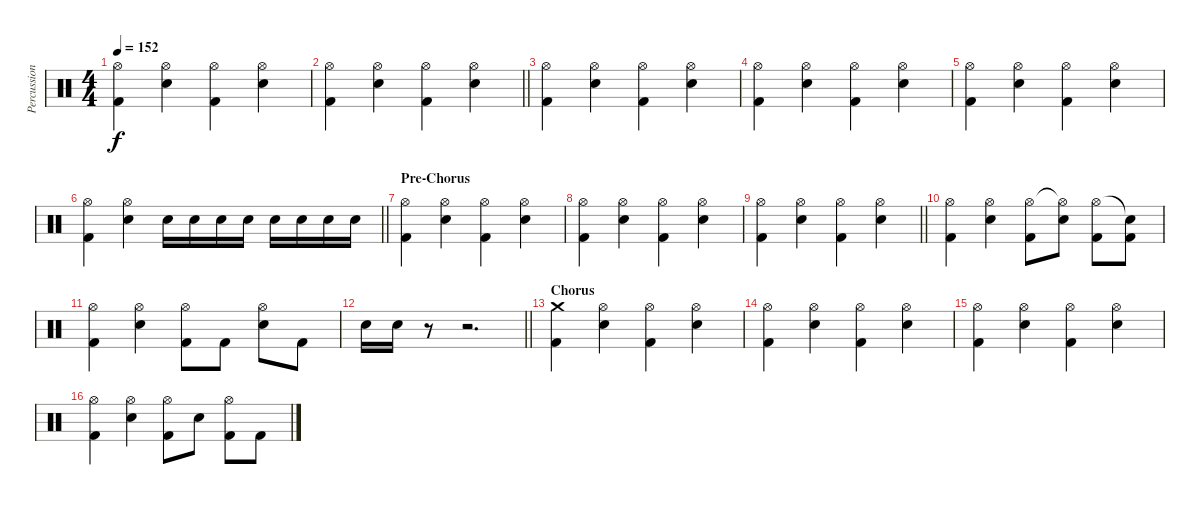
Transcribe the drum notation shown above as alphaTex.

\track ("Percussion" "Percussion") {instrument percussion}
\staff {score}
\articulation defaults
\ts (4 4)
\tempo 152
\clef neutral
\ks c
("Hi-Hat (open)" "Kick (hit) 2").4{dy f} ("Hi-Hat (open)" "Electric Snare (hit)").4 ("Hi-Hat (open)" "Kick (hit) 2").4 ("Hi-Hat (open)" "Electric Snare (hit)").4 |
\barLineRight lightlight
("Hi-Hat (open)" "Kick (hit) 2").4 ("Hi-Hat (open)" "Electric Snare (hit)").4 ("Hi-Hat (open)" "Kick (hit) 2").4 ("Hi-Hat (open)" "Electric Snare (hit)").4 |
("Hi-Hat (open)" "Kick (hit) 2").4 ("Hi-Hat (open)" "Electric Snare (hit)").4 ("Hi-Hat (open)" "Kick (hit) 2").4 ("Hi-Hat (open)" "Electric Snare (hit)").4 |
("Hi-Hat (open)" "Kick (hit) 2").4 ("Hi-Hat (open)" "Electric Snare (hit)").4 ("Hi-Hat (open)" "Kick (hit) 2").4 ("Hi-Hat (open)" "Electric Snare (hit)").4 |
("Hi-Hat (open)" "Kick (hit) 2").4 ("Hi-Hat (open)" "Electric Snare (hit)").4 ("Hi-Hat (open)" "Kick (hit) 2").4 ("Hi-Hat (open)" "Electric Snare (hit)").4 |
\barLineRight lightlight
("Hi-Hat (open)" "Kick (hit) 2").4 ("Hi-Hat (open)" "Electric Snare (hit)").4 "Electric Snare (hit)".16 "Electric Snare (hit)".16 "Electric Snare (hit)".16 "Electric Snare (hit)".16 "Electric Snare (hit)".16 "Electric Snare (hit)".16 "Electric Snare (hit)".16 "Electric Snare (hit)".16 |
\section ("" "Pre-Chorus")
("Hi-Hat (open)" "Kick (hit) 2").4 ("Hi-Hat (open)" "Electric Snare (hit)").4 ("Hi-Hat (open)" "Kick (hit) 2").4 ("Hi-Hat (open)" "Electric Snare (hit)").4 |
("Hi-Hat (open)" "Kick (hit) 2").4 ("Hi-Hat (open)" "Electric Snare (hit)").4 ("Hi-Hat (open)" "Kick (hit) 2").4 ("Hi-Hat (open)" "Electric Snare (hit)").4 |
\barLineRight lightlight
("Hi-Hat (open)" "Kick (hit) 2").4 ("Hi-Hat (open)" "Electric Snare (hit)").4 ("Hi-Hat (open)" "Kick (hit) 2").4 ("Hi-Hat (open)" "Electric Snare (hit)").4 |
("Hi-Hat (open)" "Kick (hit) 2").4 ("Hi-Hat (open)" "Electric Snare (hit)").4 ("Hi-Hat (open)" "Kick (hit) 2").8 ("Hi-Hat (open)"{t} "Electric Snare (hit)").8 ("Hi-Hat (open)" "Kick (hit) 2").8 ("Snare (hit)"{t} "Kick (hit) 2").8 |
("Hi-Hat (open)" "Kick (hit) 2").4 ("Hi-Hat (open)" "Electric Snare (hit)").4 ("Hi-Hat (open)" "Kick (hit) 2").8 "Kick (hit) 2".8 ("Hi-Hat (open)" "Electric Snare (hit)").8 "Kick (hit) 2".8 |
\barLineRight lightlight "Electric Snare (hit)".16 "Electric Snare (hit)".16
r.8 r.2{d} |
\section ("" "Chorus")
("Crash medium (hit)" "Kick (hit) 2").4 ("Hi-Hat (open)" "Electric Snare (hit)").4 ("Hi-Hat (open)" "Kick (hit) 2").4 ("Hi-Hat (open)" "Electric Snare (hit)").4 |
("Hi-Hat (open)" "Kick (hit) 2").4 ("Hi-Hat (open)" "Electric Snare (hit)").4 ("Hi-Hat (open)" "Kick (hit) 2").4 ("Hi-Hat (open)" "Electric Snare (hit)").4 |
("Hi-Hat (open)" "Kick (hit) 2").4 ("Hi-Hat (open)" "Electric Snare (hit)").4 ("Hi-Hat (open)" "Kick (hit) 2").4 ("Hi-Hat (open)" "Electric Snare (hit)").4 |
("Hi-Hat (open)" "Kick (hit) 2").4 ("Hi-Hat (open)" "Electric Snare (hit)").4 ("Hi-Hat (open)" "Kick (hit) 2").8 "Electric Snare (hit)".8 ("Hi-Hat (open)" "Kick (hit) 2").8 "Kick (hit) 2".8
